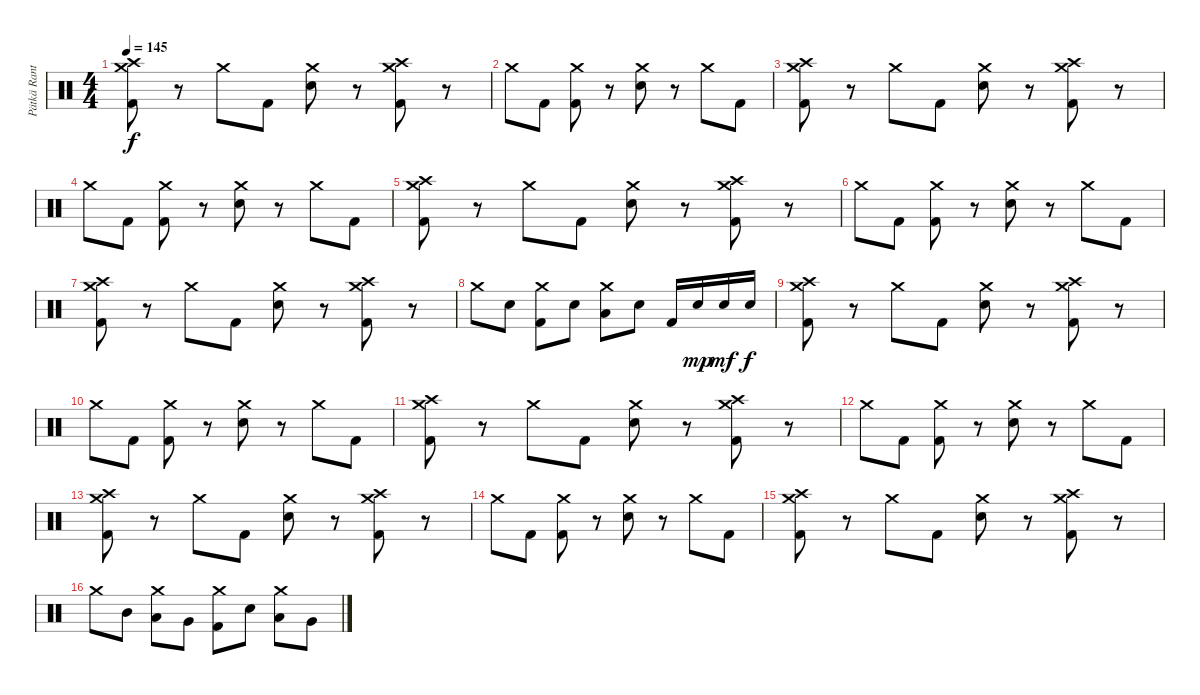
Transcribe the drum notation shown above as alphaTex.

\track ("Pätkä Rantala (Drums)" "Pätkä Rant") {instrument percussion}
\staff {score}
\articulation defaults
\ts (4 4)
\tempo 145
\clef neutral
\ks c
("Crash high (hit)" "Crash medium (hit)" "Kick (hit) 2").8{dy f} r.8 "Crash medium (hit)".8 "Kick (hit) 2".8 ("Crash medium (hit)" "Snare (hit) 2").8 r.8 ("Crash high (hit)" "Crash medium (hit)" "Kick (hit) 2").8 r.8 |
"Crash medium (hit)".8 "Kick (hit) 2".8 ("Crash medium (hit)" "Kick (hit) 2").8 r.8 ("Crash medium (hit)" "Snare (hit) 2").8 r.8 "Crash medium (hit)".8 "Kick (hit) 2".8 |
("Crash high (hit)" "Crash medium (hit)" "Kick (hit) 2").8 r.8 "Crash medium (hit)".8 "Kick (hit) 2".8 ("Crash medium (hit)" "Snare (hit) 2").8 r.8 ("Crash high (hit)" "Crash medium (hit)" "Kick (hit) 2").8 r.8 |
"Crash medium (hit)".8 "Kick (hit) 2".8 ("Crash medium (hit)" "Kick (hit) 2").8 r.8 ("Crash medium (hit)" "Snare (hit) 2").8 r.8 "Crash medium (hit)".8 "Kick (hit) 2".8 |
("Crash high (hit)" "Crash medium (hit)" "Kick (hit) 2").8 r.8 "Crash medium (hit)".8 "Kick (hit) 2".8 ("Crash medium (hit)" "Snare (hit) 2").8 r.8 ("Crash high (hit)" "Crash medium (hit)" "Kick (hit) 2").8 r.8 |
"Crash medium (hit)".8 "Kick (hit) 2".8 ("Crash medium (hit)" "Kick (hit) 2").8 r.8 ("Crash medium (hit)" "Snare (hit) 2").8 r.8 "Crash medium (hit)".8 "Kick (hit) 2".8 |
("Crash high (hit)" "Crash medium (hit)" "Kick (hit) 2").8 r.8 "Crash medium (hit)".8 "Kick (hit) 2".8 ("Crash medium (hit)" "Snare (hit) 2").8 r.8 ("Crash high (hit)" "Crash medium (hit)" "Kick (hit) 2").8 r.8 |
"Crash medium (hit)".8 "Snare (hit) 2".8 ("Crash medium (hit)" "Kick (hit) 2").8 "Snare (hit) 2".8 ("Crash medium (hit)" "Low Floor Tom (hit)").8 "Snare (hit) 2".8 "Kick (hit) 2".16 "Snare (hit) 2".16{dy mp} "Snare (hit) 2".16{dy mf} "Snare (hit) 2".16{dy f} |
("Crash high (hit)" "Crash medium (hit)" "Kick (hit) 2").8 r.8 "Crash medium (hit)".8 "Kick (hit) 2".8 ("Crash medium (hit)" "Snare (hit) 2").8 r.8 ("Crash high (hit)" "Crash medium (hit)" "Kick (hit) 2").8 r.8 |
"Crash medium (hit)".8 "Kick (hit) 2".8 ("Crash medium (hit)" "Kick (hit) 2").8 r.8 ("Crash medium (hit)" "Snare (hit) 2").8 r.8 "Crash medium (hit)".8 "Kick (hit) 2".8 |
("Crash high (hit)" "Crash medium (hit)" "Kick (hit) 2").8 r.8 "Crash medium (hit)".8 "Kick (hit) 2".8 ("Crash medium (hit)" "Snare (hit) 2").8 r.8 ("Crash high (hit)" "Crash medium (hit)" "Kick (hit) 2").8 r.8 |
"Crash medium (hit)".8 "Kick (hit) 2".8 ("Crash medium (hit)" "Kick (hit) 2").8 r.8 ("Crash medium (hit)" "Snare (hit) 2").8 r.8 "Crash medium (hit)".8 "Kick (hit) 2".8 |
("Crash high (hit)" "Crash medium (hit)" "Kick (hit) 2").8 r.8 "Crash medium (hit)".8 "Kick (hit) 2".8 ("Crash medium (hit)" "Snare (hit) 2").8 r.8 ("Crash high (hit)" "Crash medium (hit)" "Kick (hit) 2").8 r.8 |
"Crash medium (hit)".8 "Kick (hit) 2".8 ("Crash medium (hit)" "Kick (hit) 2").8 r.8 ("Crash medium (hit)" "Snare (hit) 2").8 r.8 "Crash medium (hit)".8 "Kick (hit) 2".8 |
("Crash high (hit)" "Crash medium (hit)" "Kick (hit) 2").8 r.8 "Crash medium (hit)".8 "Kick (hit) 2".8 ("Crash medium (hit)" "Snare (hit) 2").8 r.8 ("Crash high (hit)" "Crash medium (hit)" "Kick (hit) 2").8 r.8 |
"Crash medium (hit)".8 "Mid Tom (hit)".8 ("Crash medium (hit)" "Low Tom (hit)").8 "Very Low Tom (hit)".8 ("Crash medium (hit)" "Kick (hit) 2").8 "Snare (hit) 2".8 ("Crash medium (hit)" "Low Tom (hit)").8 "Very Low Tom (hit)".8
